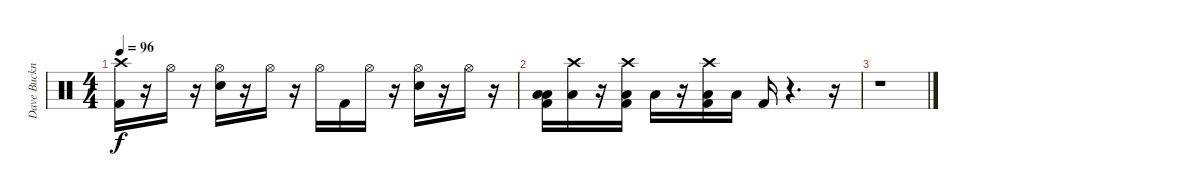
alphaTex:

\track ("Dave Buckner" "Dave Buckn") {instrument percussion}
\staff {score}
\articulation defaults
\ts (4 4)
\tempo 96
\clef neutral
\ks c
("Crash high (hit)" "Kick (hit) 2").16{dy f} r.16 "Hi-Hat (open)".16 r.16 ("Hi-Hat (open)" "Snare (hit) 2").16 r.16 "Hi-Hat (open)".16 r.16 "Hi-Hat (open)".16 "Kick (hit) 2".16 "Hi-Hat (open)".16 r.16 ("Hi-Hat (open)" "Snare (hit) 2").16 r.16 "Hi-Hat (open)".16 r.16 |
("Low Tom (hit)" "Low Floor Tom (hit)" "Kick (hit) 2").16 ("Crash high (hit)" "Low Floor Tom (hit)").16 r.16 ("Crash high (hit)" "Low Floor Tom (hit)" "Kick (hit) 2").16 "Low Floor Tom (hit)".16 r.16 ("Crash high (hit)" "Low Floor Tom (hit)" "Kick (hit) 2").16 "Low Floor Tom (hit)".16 "Kick (hit) 2".16 r.4{d} r.16 |
r.1
